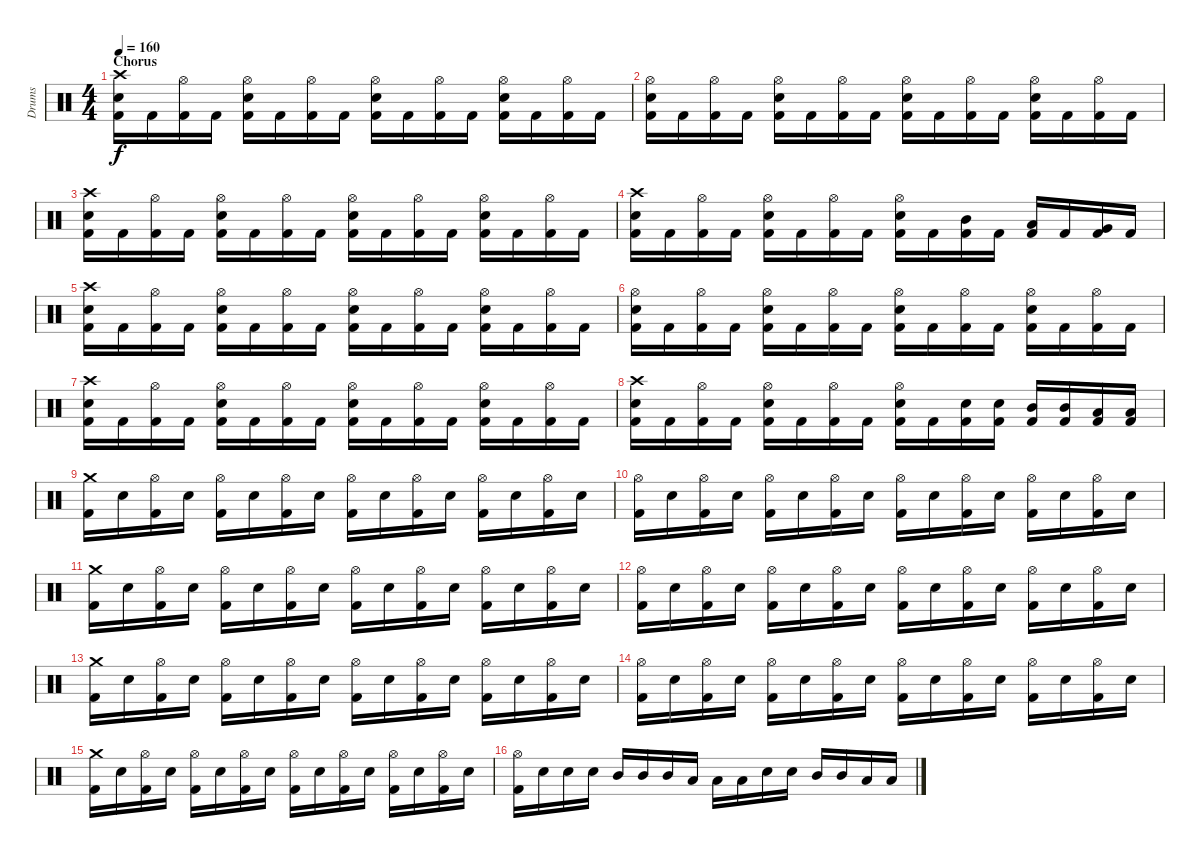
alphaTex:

\track ("Drums" "Drums") {instrument percussion}
\staff {score}
\articulation defaults
\ts (4 4)
\section ("" "Chorus")
\tempo 160
\clef neutral
\ks c
("Kick (hit) 2" "Electric Snare (hit)" "Crash high (hit)").16{dy f} "Kick (hit) 2".16 ("Kick (hit) 2" "Hi-Hat (open)").16 "Kick (hit) 2".16 ("Kick (hit) 2" "Electric Snare (hit)" "Hi-Hat (open)").16 "Kick (hit) 2".16 ("Kick (hit) 2" "Hi-Hat (open)").16 "Kick (hit) 2".16 ("Kick (hit) 2" "Electric Snare (hit)" "Hi-Hat (open)").16 "Kick (hit) 2".16 ("Kick (hit) 2" "Hi-Hat (open)").16 "Kick (hit) 2".16 ("Kick (hit) 2" "Electric Snare (hit)" "Hi-Hat (open)").16 "Kick (hit) 2".16 ("Kick (hit) 2" "Hi-Hat (open)").16 "Kick (hit) 2".16 |
("Kick (hit) 2" "Electric Snare (hit)" "Hi-Hat (open)").16 "Kick (hit) 2".16 ("Kick (hit) 2" "Hi-Hat (open)").16 "Kick (hit) 2".16 ("Kick (hit) 2" "Electric Snare (hit)" "Hi-Hat (open)").16 "Kick (hit) 2".16 ("Kick (hit) 2" "Hi-Hat (open)").16 "Kick (hit) 2".16 ("Kick (hit) 2" "Electric Snare (hit)" "Hi-Hat (open)").16 "Kick (hit) 2".16 ("Kick (hit) 2" "Hi-Hat (open)").16 "Kick (hit) 2".16 ("Kick (hit) 2" "Electric Snare (hit)" "Hi-Hat (open)").16 "Kick (hit) 2".16 ("Kick (hit) 2" "Hi-Hat (open)").16 "Kick (hit) 2".16 |
("Kick (hit) 2" "Electric Snare (hit)" "Crash high (hit)").16 "Kick (hit) 2".16 ("Kick (hit) 2" "Hi-Hat (open)").16 "Kick (hit) 2".16 ("Kick (hit) 2" "Electric Snare (hit)" "Hi-Hat (open)").16 "Kick (hit) 2".16 ("Kick (hit) 2" "Hi-Hat (open)").16 "Kick (hit) 2".16 ("Kick (hit) 2" "Electric Snare (hit)" "Hi-Hat (open)").16 "Kick (hit) 2".16 ("Kick (hit) 2" "Hi-Hat (open)").16 "Kick (hit) 2".16 ("Kick (hit) 2" "Electric Snare (hit)" "Hi-Hat (open)").16 "Kick (hit) 2".16 ("Kick (hit) 2" "Hi-Hat (open)").16 "Kick (hit) 2".16 |
("Kick (hit) 2" "Electric Snare (hit)" "Crash high (hit)").16 "Kick (hit) 2".16 ("Kick (hit) 2" "Hi-Hat (open)").16 "Kick (hit) 2".16 ("Kick (hit) 2" "Electric Snare (hit)" "Hi-Hat (open)").16 "Kick (hit) 2".16 ("Kick (hit) 2" "Hi-Hat (open)").16 "Kick (hit) 2".16 ("Kick (hit) 2" "Electric Snare (hit)" "Hi-Hat (open)").16 "Kick (hit) 2".16 ("Kick (hit) 2" "Mid Tom (hit)").16 "Kick (hit) 2".16 ("Kick (hit) 2" "Low Tom (hit)").16 "Kick (hit) 2".16 ("Kick (hit) 2" "Very Low Tom (hit)").16 "Kick (hit) 2".16 |
("Kick (hit) 2" "Electric Snare (hit)" "Crash high (hit)").16 "Kick (hit) 2".16 ("Kick (hit) 2" "Hi-Hat (open)").16 "Kick (hit) 2".16 ("Kick (hit) 2" "Electric Snare (hit)" "Hi-Hat (open)").16 "Kick (hit) 2".16 ("Kick (hit) 2" "Hi-Hat (open)").16 "Kick (hit) 2".16 ("Kick (hit) 2" "Electric Snare (hit)" "Hi-Hat (open)").16 "Kick (hit) 2".16 ("Kick (hit) 2" "Hi-Hat (open)").16 "Kick (hit) 2".16 ("Kick (hit) 2" "Electric Snare (hit)" "Hi-Hat (open)").16 "Kick (hit) 2".16 ("Kick (hit) 2" "Hi-Hat (open)").16 "Kick (hit) 2".16 |
("Kick (hit) 2" "Electric Snare (hit)" "Hi-Hat (open)").16 "Kick (hit) 2".16 ("Kick (hit) 2" "Hi-Hat (open)").16 "Kick (hit) 2".16 ("Kick (hit) 2" "Electric Snare (hit)" "Hi-Hat (open)").16 "Kick (hit) 2".16 ("Kick (hit) 2" "Hi-Hat (open)").16 "Kick (hit) 2".16 ("Kick (hit) 2" "Electric Snare (hit)" "Hi-Hat (open)").16 "Kick (hit) 2".16 ("Kick (hit) 2" "Hi-Hat (open)").16 "Kick (hit) 2".16 ("Kick (hit) 2" "Electric Snare (hit)" "Hi-Hat (open)").16 "Kick (hit) 2".16 ("Kick (hit) 2" "Hi-Hat (open)").16 "Kick (hit) 2".16 |
("Kick (hit) 2" "Electric Snare (hit)" "Crash high (hit)").16 "Kick (hit) 2".16 ("Kick (hit) 2" "Hi-Hat (open)").16 "Kick (hit) 2".16 ("Kick (hit) 2" "Electric Snare (hit)" "Hi-Hat (open)").16 "Kick (hit) 2".16 ("Kick (hit) 2" "Hi-Hat (open)").16 "Kick (hit) 2".16 ("Kick (hit) 2" "Electric Snare (hit)" "Hi-Hat (open)").16 "Kick (hit) 2".16 ("Kick (hit) 2" "Hi-Hat (open)").16 "Kick (hit) 2".16 ("Kick (hit) 2" "Electric Snare (hit)" "Hi-Hat (open)").16 "Kick (hit) 2".16 ("Kick (hit) 2" "Hi-Hat (open)").16 "Kick (hit) 2".16 |
("Kick (hit) 2" "Electric Snare (hit)" "Crash high (hit)").16 "Kick (hit) 2".16 ("Kick (hit) 2" "Hi-Hat (open)").16 "Kick (hit) 2".16 ("Kick (hit) 2" "Electric Snare (hit)" "Hi-Hat (open)").16 "Kick (hit) 2".16 ("Kick (hit) 2" "Hi-Hat (open)").16 "Kick (hit) 2".16 ("Kick (hit) 2" "Electric Snare (hit)" "Hi-Hat (open)").16 "Kick (hit) 2".16 ("Kick (hit) 2" "Electric Snare (hit)").16 ("Kick (hit) 2" "Electric Snare (hit)").16 ("Kick (hit) 2" "Mid Tom (hit)").16 ("Kick (hit) 2" "Mid Tom (hit)").16 ("Kick (hit) 2" "Low Tom (hit)").16 ("Kick (hit) 2" "Low Tom (hit)").16 |
("Kick (hit) 2" "Crash medium (hit)").16 "Electric Snare (hit)".16 ("Kick (hit) 2" "Hi-Hat (open)").16 "Electric Snare (hit)".16 ("Kick (hit) 2" "Hi-Hat (open)").16 "Electric Snare (hit)".16 ("Kick (hit) 2" "Hi-Hat (open)").16 "Electric Snare (hit)".16 ("Kick (hit) 2" "Hi-Hat (open)").16 "Electric Snare (hit)".16 ("Kick (hit) 2" "Hi-Hat (open)").16 "Electric Snare (hit)".16 ("Kick (hit) 2" "Hi-Hat (open)").16 "Electric Snare (hit)".16 ("Kick (hit) 2" "Hi-Hat (open)").16 "Electric Snare (hit)".16 |
("Kick (hit) 2" "Hi-Hat (open)").16 "Electric Snare (hit)".16 ("Kick (hit) 2" "Hi-Hat (open)").16 "Electric Snare (hit)".16 ("Kick (hit) 2" "Hi-Hat (open)").16 "Electric Snare (hit)".16 ("Kick (hit) 2" "Hi-Hat (open)").16 "Electric Snare (hit)".16 ("Kick (hit) 2" "Hi-Hat (open)").16 "Electric Snare (hit)".16 ("Kick (hit) 2" "Hi-Hat (open)").16 "Electric Snare (hit)".16 ("Kick (hit) 2" "Hi-Hat (open)").16 "Electric Snare (hit)".16 ("Kick (hit) 2" "Hi-Hat (open)").16 "Electric Snare (hit)".16 |
("Kick (hit) 2" "Crash medium (hit)").16 "Electric Snare (hit)".16 ("Kick (hit) 2" "Hi-Hat (open)").16 "Electric Snare (hit)".16 ("Kick (hit) 2" "Hi-Hat (open)").16 "Electric Snare (hit)".16 ("Kick (hit) 2" "Hi-Hat (open)").16 "Electric Snare (hit)".16 ("Kick (hit) 2" "Hi-Hat (open)").16 "Electric Snare (hit)".16 ("Kick (hit) 2" "Hi-Hat (open)").16 "Electric Snare (hit)".16 ("Kick (hit) 2" "Hi-Hat (open)").16 "Electric Snare (hit)".16 ("Kick (hit) 2" "Hi-Hat (open)").16 "Electric Snare (hit)".16 |
("Kick (hit) 2" "Hi-Hat (open)").16 "Electric Snare (hit)".16 ("Kick (hit) 2" "Hi-Hat (open)").16 "Electric Snare (hit)".16 ("Kick (hit) 2" "Hi-Hat (open)").16 "Electric Snare (hit)".16 ("Kick (hit) 2" "Hi-Hat (open)").16 "Electric Snare (hit)".16 ("Kick (hit) 2" "Hi-Hat (open)").16 "Electric Snare (hit)".16 ("Kick (hit) 2" "Hi-Hat (open)").16 "Electric Snare (hit)".16 ("Kick (hit) 2" "Hi-Hat (open)").16 "Electric Snare (hit)".16 ("Kick (hit) 2" "Hi-Hat (open)").16 "Electric Snare (hit)".16 |
("Kick (hit) 2" "Crash medium (hit)").16 "Electric Snare (hit)".16 ("Kick (hit) 2" "Hi-Hat (open)").16 "Electric Snare (hit)".16 ("Kick (hit) 2" "Hi-Hat (open)").16 "Electric Snare (hit)".16 ("Kick (hit) 2" "Hi-Hat (open)").16 "Electric Snare (hit)".16 ("Kick (hit) 2" "Hi-Hat (open)").16 "Electric Snare (hit)".16 ("Kick (hit) 2" "Hi-Hat (open)").16 "Electric Snare (hit)".16 ("Kick (hit) 2" "Hi-Hat (open)").16 "Electric Snare (hit)".16 ("Kick (hit) 2" "Hi-Hat (open)").16 "Electric Snare (hit)".16 |
("Kick (hit) 2" "Hi-Hat (open)").16 "Electric Snare (hit)".16 ("Kick (hit) 2" "Hi-Hat (open)").16 "Electric Snare (hit)".16 ("Kick (hit) 2" "Hi-Hat (open)").16 "Electric Snare (hit)".16 ("Kick (hit) 2" "Hi-Hat (open)").16 "Electric Snare (hit)".16 ("Kick (hit) 2" "Hi-Hat (open)").16 "Electric Snare (hit)".16 ("Kick (hit) 2" "Hi-Hat (open)").16 "Electric Snare (hit)".16 ("Kick (hit) 2" "Hi-Hat (open)").16 "Electric Snare (hit)".16 ("Kick (hit) 2" "Hi-Hat (open)").16 "Electric Snare (hit)".16 |
("Kick (hit) 2" "Crash medium (hit)").16 "Electric Snare (hit)".16 ("Kick (hit) 2" "Hi-Hat (open)").16 "Electric Snare (hit)".16 ("Kick (hit) 2" "Hi-Hat (open)").16 "Electric Snare (hit)".16 ("Kick (hit) 2" "Hi-Hat (open)").16 "Electric Snare (hit)".16 ("Kick (hit) 2" "Hi-Hat (open)").16 "Electric Snare (hit)".16 ("Kick (hit) 2" "Hi-Hat (open)").16 "Electric Snare (hit)".16 ("Kick (hit) 2" "Hi-Hat (open)").16 "Electric Snare (hit)".16 ("Kick (hit) 2" "Hi-Hat (open)").16 "Electric Snare (hit)".16 |
("Kick (hit) 2" "Hi-Hat (open)").16 "Electric Snare (hit)".16 "Electric Snare (hit)".16 "Electric Snare (hit)".16 "Mid Tom (hit)".16 "Mid Tom (hit)".16 "Mid Tom (hit)".16 "Low Tom (hit)".16 "Low Tom (hit)".16 "Low Tom (hit)".16 "Electric Snare (hit)".16 "Electric Snare (hit)".16 "Mid Tom (hit)".16 "Mid Tom (hit)".16 "Low Tom (hit)".16 "Low Tom (hit)".16
